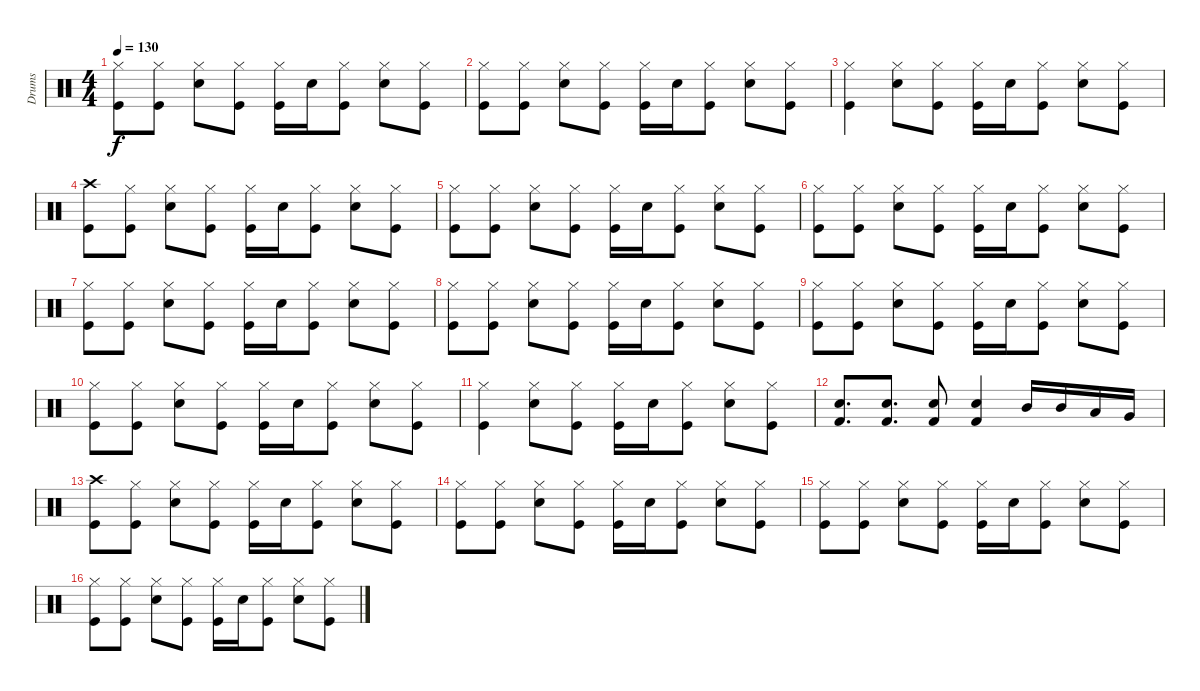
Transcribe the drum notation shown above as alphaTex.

\track ("Drums" "Drums") {instrument percussion}
\staff {score}
\articulation defaults
\ts (4 4)
\tempo 130
\clef neutral
\ks c
("Hi-Hat (closed)" "Kick (hit)").8{dy f} ("Hi-Hat (closed)" "Kick (hit)").8 ("Hi-Hat (closed)" "Snare (hit) 2").8 ("Hi-Hat (closed)" "Kick (hit)").8 ("Hi-Hat (closed)" "Kick (hit)").16 "Snare (hit) 2".16 ("Hi-Hat (closed)" "Kick (hit)").8 ("Hi-Hat (closed)" "Snare (hit) 2").8 ("Hi-Hat (closed)" "Kick (hit)").8 |
("Hi-Hat (closed)" "Kick (hit)").8 ("Hi-Hat (closed)" "Kick (hit)").8 ("Hi-Hat (closed)" "Snare (hit) 2").8 ("Hi-Hat (closed)" "Kick (hit)").8 ("Hi-Hat (closed)" "Kick (hit)").16 "Snare (hit) 2".16 ("Hi-Hat (closed)" "Kick (hit)").8 ("Hi-Hat (closed)" "Snare (hit) 2").8 ("Hi-Hat (closed)" "Kick (hit)").8 |
("Hi-Hat (closed)" "Kick (hit)").4 ("Hi-Hat (closed)" "Snare (hit) 2").8 ("Hi-Hat (closed)" "Kick (hit)").8 ("Hi-Hat (closed)" "Kick (hit)").16 "Snare (hit) 2".16 ("Hi-Hat (closed)" "Kick (hit)").8 ("Hi-Hat (closed)" "Snare (hit) 2").8 ("Hi-Hat (closed)" "Kick (hit)").8 |
("Crash high (hit)" "Kick (hit)").8 ("Hi-Hat (closed)" "Kick (hit)").8 ("Hi-Hat (closed)" "Snare (hit) 2").8 ("Hi-Hat (closed)" "Kick (hit)").8 ("Hi-Hat (closed)" "Kick (hit)").16 "Snare (hit) 2".16 ("Hi-Hat (closed)" "Kick (hit)").8 ("Hi-Hat (closed)" "Snare (hit) 2").8 ("Hi-Hat (closed)" "Kick (hit)").8 |
("Hi-Hat (closed)" "Kick (hit)").8 ("Hi-Hat (closed)" "Kick (hit)").8 ("Hi-Hat (closed)" "Snare (hit) 2").8 ("Hi-Hat (closed)" "Kick (hit)").8 ("Hi-Hat (closed)" "Kick (hit)").16 "Snare (hit) 2".16 ("Hi-Hat (closed)" "Kick (hit)").8 ("Hi-Hat (closed)" "Snare (hit) 2").8 ("Hi-Hat (closed)" "Kick (hit)").8 |
("Hi-Hat (closed)" "Kick (hit)").8 ("Hi-Hat (closed)" "Kick (hit)").8 ("Hi-Hat (closed)" "Snare (hit) 2").8 ("Hi-Hat (closed)" "Kick (hit)").8 ("Hi-Hat (closed)" "Kick (hit)").16 "Snare (hit) 2".16 ("Hi-Hat (closed)" "Kick (hit)").8 ("Hi-Hat (closed)" "Snare (hit) 2").8 ("Hi-Hat (closed)" "Kick (hit)").8 |
("Hi-Hat (closed)" "Kick (hit)").8 ("Hi-Hat (closed)" "Kick (hit)").8 ("Hi-Hat (closed)" "Snare (hit) 2").8 ("Hi-Hat (closed)" "Kick (hit)").8 ("Hi-Hat (closed)" "Kick (hit)").16 "Snare (hit) 2".16 ("Hi-Hat (closed)" "Kick (hit)").8 ("Hi-Hat (closed)" "Snare (hit) 2").8 ("Hi-Hat (closed)" "Kick (hit)").8 |
("Hi-Hat (closed)" "Kick (hit)").8 ("Hi-Hat (closed)" "Kick (hit)").8 ("Hi-Hat (closed)" "Snare (hit) 2").8 ("Hi-Hat (closed)" "Kick (hit)").8 ("Hi-Hat (closed)" "Kick (hit)").16 "Snare (hit) 2".16 ("Hi-Hat (closed)" "Kick (hit)").8 ("Hi-Hat (closed)" "Snare (hit) 2").8 ("Hi-Hat (closed)" "Kick (hit)").8 |
("Hi-Hat (closed)" "Kick (hit)").8 ("Hi-Hat (closed)" "Kick (hit)").8 ("Hi-Hat (closed)" "Snare (hit) 2").8 ("Hi-Hat (closed)" "Kick (hit)").8 ("Hi-Hat (closed)" "Kick (hit)").16 "Snare (hit) 2".16 ("Hi-Hat (closed)" "Kick (hit)").8 ("Hi-Hat (closed)" "Snare (hit) 2").8 ("Hi-Hat (closed)" "Kick (hit)").8 |
("Hi-Hat (closed)" "Kick (hit)").8 ("Hi-Hat (closed)" "Kick (hit)").8 ("Hi-Hat (closed)" "Snare (hit) 2").8 ("Hi-Hat (closed)" "Kick (hit)").8 ("Hi-Hat (closed)" "Kick (hit)").16 "Snare (hit) 2".16 ("Hi-Hat (closed)" "Kick (hit)").8 ("Hi-Hat (closed)" "Snare (hit) 2").8 ("Hi-Hat (closed)" "Kick (hit)").8 |
("Hi-Hat (closed)" "Kick (hit)").4 ("Hi-Hat (closed)" "Snare (hit) 2").8 ("Hi-Hat (closed)" "Kick (hit)").8 ("Hi-Hat (closed)" "Kick (hit)").16 "Snare (hit) 2".16 ("Hi-Hat (closed)" "Kick (hit)").8 ("Hi-Hat (closed)" "Snare (hit) 2").8 ("Hi-Hat (closed)" "Kick (hit)").8 |
("Kick (hit) 2" "Snare (hit) 2").8{d} ("Kick (hit) 2" "Snare (hit) 2").8{d} ("Kick (hit) 2" "Snare (hit) 2").8 ("Kick (hit) 2" "Snare (hit) 2").4 "Mid Tom (hit)".16 "Mid Tom (hit)".16 "Low Tom (hit)".16 "Very Low Tom (hit)".16 |
("Crash high (hit)" "Kick (hit)").8 ("Hi-Hat (closed)" "Kick (hit)").8 ("Hi-Hat (closed)" "Snare (hit) 2").8 ("Hi-Hat (closed)" "Kick (hit)").8 ("Hi-Hat (closed)" "Kick (hit)").16 "Snare (hit) 2".16 ("Hi-Hat (closed)" "Kick (hit)").8 ("Hi-Hat (closed)" "Snare (hit) 2").8 ("Hi-Hat (closed)" "Kick (hit)").8 |
("Hi-Hat (closed)" "Kick (hit)").8 ("Hi-Hat (closed)" "Kick (hit)").8 ("Hi-Hat (closed)" "Snare (hit) 2").8 ("Hi-Hat (closed)" "Kick (hit)").8 ("Hi-Hat (closed)" "Kick (hit)").16 "Snare (hit) 2".16 ("Hi-Hat (closed)" "Kick (hit)").8 ("Hi-Hat (closed)" "Snare (hit) 2").8 ("Hi-Hat (closed)" "Kick (hit)").8 |
("Hi-Hat (closed)" "Kick (hit)").8 ("Hi-Hat (closed)" "Kick (hit)").8 ("Hi-Hat (closed)" "Snare (hit) 2").8 ("Hi-Hat (closed)" "Kick (hit)").8 ("Hi-Hat (closed)" "Kick (hit)").16 "Snare (hit) 2".16 ("Hi-Hat (closed)" "Kick (hit)").8 ("Hi-Hat (closed)" "Snare (hit) 2").8 ("Hi-Hat (closed)" "Kick (hit)").8 |
("Hi-Hat (closed)" "Kick (hit)").8 ("Hi-Hat (closed)" "Kick (hit)").8 ("Hi-Hat (closed)" "Snare (hit) 2").8 ("Hi-Hat (closed)" "Kick (hit)").8 ("Hi-Hat (closed)" "Kick (hit)").16 "Snare (hit) 2".16 ("Hi-Hat (closed)" "Kick (hit)").8 ("Hi-Hat (closed)" "Snare (hit) 2").8 ("Hi-Hat (closed)" "Kick (hit)").8
